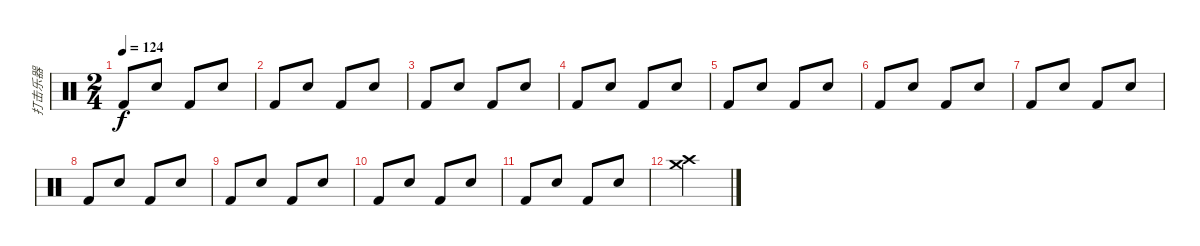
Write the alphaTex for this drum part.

\track ("打击乐器" "打击乐器") {instrument percussion}
\staff {score}
\articulation defaults
\ts (2 4)
\tempo 124
\clef neutral
\ks c "Kick (hit) 2".8{dy f} "Snare (hit) 2".8 "Kick (hit) 2".8 "Snare (hit) 2".8
|
"Kick (hit) 2".8 "Snare (hit) 2".8 "Kick (hit) 2".8 "Snare (hit) 2".8 |
"Kick (hit) 2".8 "Snare (hit) 2".8 "Kick (hit) 2".8 "Snare (hit) 2".8 |
"Kick (hit) 2".8 "Snare (hit) 2".8 "Kick (hit) 2".8 "Snare (hit) 2".8 |
"Kick (hit) 2".8 "Snare (hit) 2".8 "Kick (hit) 2".8 "Snare (hit) 2".8 |
"Kick (hit) 2".8 "Snare (hit) 2".8 "Kick (hit) 2".8 "Snare (hit) 2".8 |
"Kick (hit) 2".8 "Snare (hit) 2".8 "Kick (hit) 2".8 "Snare (hit) 2".8 |
"Kick (hit) 2".8 "Snare (hit) 2".8 "Kick (hit) 2".8 "Snare (hit) 2".8 |
"Kick (hit) 2".8 "Snare (hit) 2".8 "Kick (hit) 2".8 "Snare (hit) 2".8 |
"Kick (hit) 2".8 "Snare (hit) 2".8 "Kick (hit) 2".8 "Snare (hit) 2".8 |
"Kick (hit) 2".8 "Snare (hit) 2".8 "Kick (hit) 2".8 "Snare (hit) 2".8 |
("Crash medium (hit)" "Crash high (hit)").2
